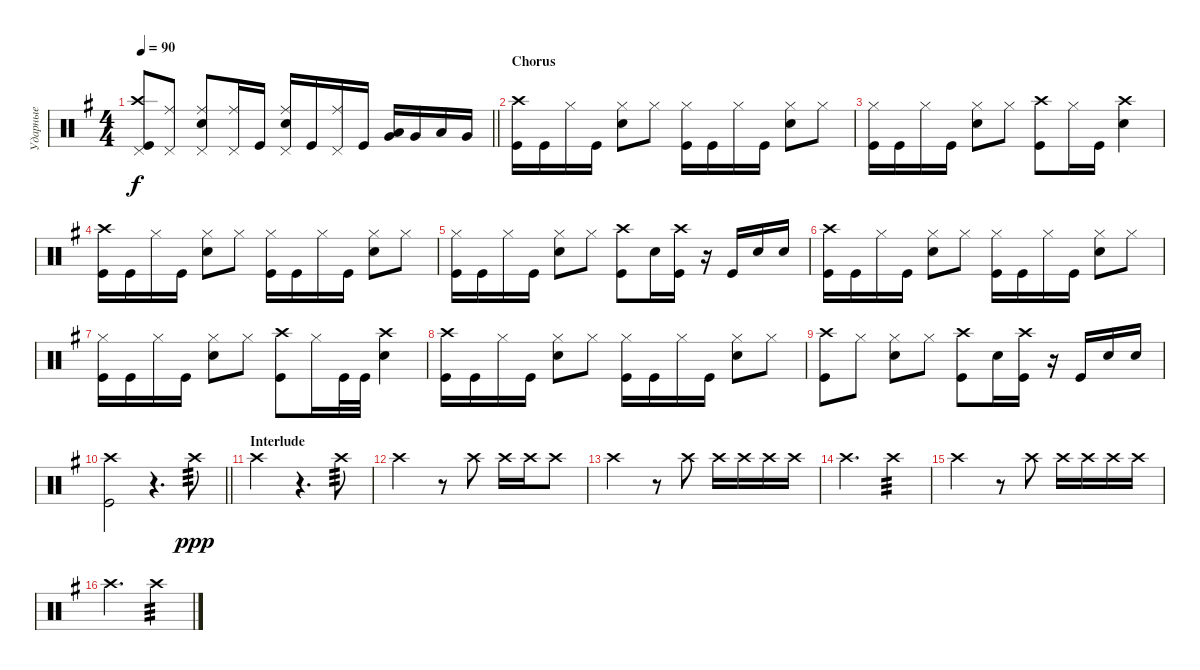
\track ("Ударные" "Ударные") {instrument percussion}
\staff {score}
\articulation defaults
\ts (4 4)
\tempo 90
\clef neutral
\barLineRight lightlight
\ks eminor
("Kick (hit)" "Crash high (hit)" "Pedal Hi-Hat (hit)").8{dy f} ("Pedal Hi-Hat (hit)" "Ride (middle)").8 ("Ride (middle)" "Pedal Hi-Hat (hit)" "Snare (hit) 2").8 ("Ride (middle)" "Pedal Hi-Hat (hit)").16 "Kick (hit)".16 ("Snare (hit) 2" "Pedal Hi-Hat (hit)" "Ride (middle)").16 "Kick (hit)".16 ("Pedal Hi-Hat (hit)" "Ride (middle)").16 "Kick (hit)".16 ("Very Low Tom (hit)" "Low Tom (hit)").16{bd 60} "Very Low Tom (hit)".16 "Low Tom (hit)".16 "Very Low Tom (hit)".16 |
\section ("" "Chorus")
("Kick (hit)" "Crash high (hit)").16 "Kick (hit)".16 "Hi-Hat (closed)".16 "Kick (hit)".16 ("Snare (hit) 2" "Hi-Hat (closed)").8 "Hi-Hat (closed)".8 ("Hi-Hat (closed)" "Kick (hit)").16 "Kick (hit)".16 "Hi-Hat (closed)".16 "Kick (hit)".16 ("Snare (hit) 2" "Hi-Hat (closed)").8 "Hi-Hat (closed)".8 |
("Hi-Hat (closed)" "Kick (hit)").16 "Kick (hit)".16 "Hi-Hat (closed)".16 "Kick (hit)".16 ("Snare (hit) 2" "Hi-Hat (closed)").8 "Hi-Hat (closed)".8 ("Kick (hit)" "Crash high (hit)").8 "Hi-Hat (closed)".16 "Kick (hit)".16 ("Snare (hit) 2" "Crash high (hit)").4 |
("Kick (hit)" "Crash high (hit)").16 "Kick (hit)".16 "Hi-Hat (closed)".16 "Kick (hit)".16 ("Snare (hit) 2" "Hi-Hat (closed)").8 "Hi-Hat (closed)".8 ("Hi-Hat (closed)" "Kick (hit)").16 "Kick (hit)".16 "Hi-Hat (closed)".16 "Kick (hit)".16 ("Snare (hit) 2" "Hi-Hat (closed)").8 "Hi-Hat (closed)".8 |
("Hi-Hat (closed)" "Kick (hit)").16 "Kick (hit)".16 "Hi-Hat (closed)".16 "Kick (hit)".16 ("Snare (hit) 2" "Hi-Hat (closed)").8 "Hi-Hat (closed)".8 ("Kick (hit)" "Crash high (hit)").8 "Snare (hit) 2".16 ("Kick (hit)" "Crash high (hit)").16 r.16 "Kick (hit)".16 "Snare (hit) 2".16 "Snare (hit) 2".16 |
("Kick (hit)" "Crash high (hit)").16 "Kick (hit)".16 "Hi-Hat (closed)".16 "Kick (hit)".16 ("Snare (hit) 2" "Hi-Hat (closed)").8 "Hi-Hat (closed)".8 ("Hi-Hat (closed)" "Kick (hit)").16 "Kick (hit)".16 "Hi-Hat (closed)".16 "Kick (hit)".16 ("Snare (hit) 2" "Hi-Hat (closed)").8 "Hi-Hat (closed)".8 |
("Hi-Hat (closed)" "Kick (hit)").16 "Kick (hit)".16 "Hi-Hat (closed)".16 "Kick (hit)".16 ("Snare (hit) 2" "Hi-Hat (closed)").8 "Hi-Hat (closed)".8 ("Kick (hit)" "Crash high (hit)").8 "Hi-Hat (closed)".16 "Kick (hit)".32 "Kick (hit)".32 ("Snare (hit) 2" "Crash high (hit)").4 |
("Kick (hit)" "Crash high (hit)").16 "Kick (hit)".16 "Hi-Hat (closed)".16 "Kick (hit)".16 ("Snare (hit) 2" "Hi-Hat (closed)").8 "Hi-Hat (closed)".8 ("Hi-Hat (closed)" "Kick (hit)").16 "Kick (hit)".16 "Hi-Hat (closed)".16 "Kick (hit)".16 ("Snare (hit) 2" "Hi-Hat (closed)").8 "Hi-Hat (closed)".8 |
("Crash high (hit)" "Kick (hit)").8 "Hi-Hat (closed)".8 ("Snare (hit) 2" "Hi-Hat (closed)").8 "Hi-Hat (closed)".8 ("Kick (hit)" "Crash high (hit)").8 "Snare (hit) 2".16 ("Kick (hit)" "Crash high (hit)").16 r.16 "Kick (hit)".16 "Snare (hit) 2".16 "Snare (hit) 2".16 |
\barLineRight lightlight
("Kick (hit)" "Crash high (hit)").2 r.4{d} "Crash high (hit)".8{tp 3 dy ppp} |
\section ("" "Interlude")
"Crash high (hit)".2 r.4{d} "Crash high (hit)".8{tp 3} |
"Crash high (hit)".2 r.8 "Crash high (hit)".8 "Crash high (hit)".16 "Crash high (hit)".16 "Crash high (hit)".8 |
"Crash high (hit)".2 r.8 "Crash high (hit)".8 "Crash high (hit)".16 "Crash high (hit)".16 "Crash high (hit)".16 "Crash high (hit)".16 |
"Crash high (hit)".2{d} "Crash high (hit)".4{tp 3} |
"Crash high (hit)".2 r.8 "Crash high (hit)".8 "Crash high (hit)".16 "Crash high (hit)".16 "Crash high (hit)".16 "Crash high (hit)".16 |
"Crash high (hit)".2{d} "Crash high (hit)".4{tp 3}
